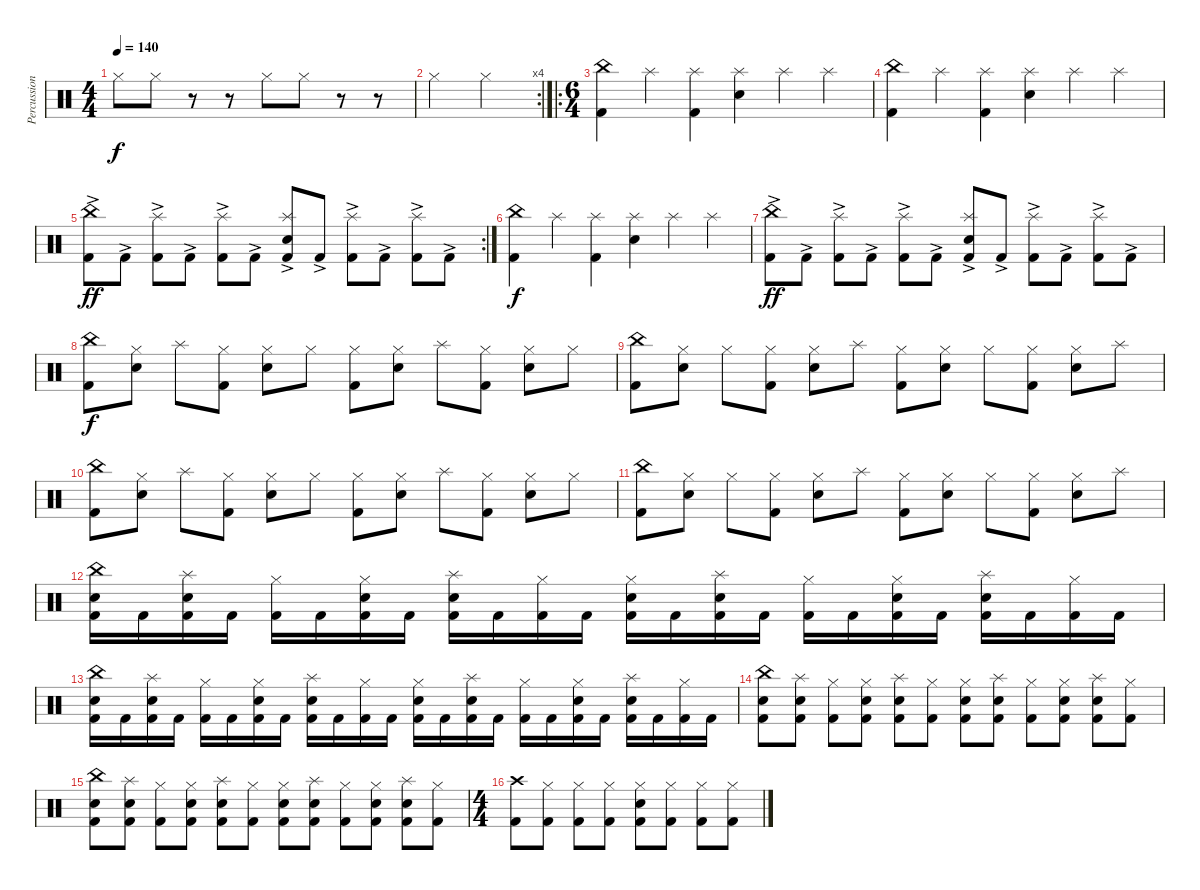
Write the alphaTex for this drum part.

\track ("Percussion" "Percussion") {instrument percussion}
\staff {score}
\articulation defaults
\ts (4 4)
\tempo 140
\clef neutral
\ks c "Hi-Hat (closed)".8{dy f} "Hi-Hat (closed)".8
r.8 r.8 "Hi-Hat (closed)".8 "Hi-Hat (closed)".8 r.8 r.8 |
\rc 4 "Hi-Hat (closed)".2 "Hi-Hat (closed)".2
|
\ro
\ts (6 4)
("China (hit)" "Kick (hit) 2").4 "Splash (hit)".4 ("Splash (hit)" "Kick (hit) 2").4 ("Splash (hit)" "Snare (hit) 2").4 "Splash (hit)".4 "Splash (hit)".4 |
("China (hit)" "Kick (hit) 2").4 "Splash (hit)".4 ("Splash (hit)" "Kick (hit) 2").4 ("Splash (hit)" "Snare (hit) 2").4 "Splash (hit)".4 "Splash (hit)".4 |
\rc 2
("China (hit)" "Kick (hit) 2"{ac}).8{dy ff} "Kick (hit) 2"{ac}.8 ("Splash (hit)" "Kick (hit) 2"{ac}).8 "Kick (hit) 2"{ac}.8 ("Splash (hit)" "Kick (hit) 2"{ac}).8 "Kick (hit) 2"{ac}.8 ("Splash (hit)" "Snare (hit) 2" "Kick (hit) 2"{ac}).8 "Kick (hit) 2"{ac}.8 ("Splash (hit)" "Kick (hit) 2"{ac}).8 "Kick (hit) 2"{ac}.8 ("Splash (hit)" "Kick (hit) 2"{ac}).8 "Kick (hit) 2"{ac}.8 |
("China (hit)" "Kick (hit) 2").4{dy f} "Splash (hit)".4 ("Splash (hit)" "Kick (hit) 2").4 ("Splash (hit)" "Snare (hit) 2").4 "Splash (hit)".4 "Splash (hit)".4 |
("China (hit)" "Kick (hit) 2"{ac}).8{dy ff} "Kick (hit) 2"{ac}.8 ("Splash (hit)" "Kick (hit) 2"{ac}).8 "Kick (hit) 2"{ac}.8 ("Splash (hit)" "Kick (hit) 2"{ac}).8 "Kick (hit) 2"{ac}.8 ("Splash (hit)" "Snare (hit) 2" "Kick (hit) 2"{ac}).8 "Kick (hit) 2"{ac}.8 ("Splash (hit)" "Kick (hit) 2"{ac}).8 "Kick (hit) 2"{ac}.8 ("Splash (hit)" "Kick (hit) 2"{ac}).8 "Kick (hit) 2"{ac}.8 |
("China (hit)" "Kick (hit) 2").8{dy f} ("Hi-Hat (closed)" "Snare (hit) 2").8 "Splash (hit)".8 ("Hi-Hat (closed)" "Kick (hit) 2").8 ("Hi-Hat (closed)" "Snare (hit) 2").8 "Hi-Hat (closed)".8 ("Hi-Hat (closed)" "Kick (hit) 2").8 ("Hi-Hat (closed)" "Snare (hit) 2").8 "Splash (hit)".8 ("Hi-Hat (closed)" "Kick (hit) 2").8 ("Hi-Hat (closed)" "Snare (hit) 2").8 "Hi-Hat (closed)".8 |
("China (hit)" "Kick (hit) 2").8 ("Hi-Hat (closed)" "Snare (hit) 2").8 "Hi-Hat (closed)".8 ("Hi-Hat (closed)" "Kick (hit) 2").8 ("Hi-Hat (closed)" "Snare (hit) 2").8 "Splash (hit)".8 ("Hi-Hat (closed)" "Kick (hit) 2").8 ("Hi-Hat (closed)" "Snare (hit) 2").8 "Hi-Hat (closed)".8 ("Hi-Hat (closed)" "Kick (hit) 2").8 ("Hi-Hat (closed)" "Snare (hit) 2").8 "Splash (hit)".8 |
("China (hit)" "Kick (hit) 2").8 ("Hi-Hat (closed)" "Snare (hit) 2").8 "Splash (hit)".8 ("Hi-Hat (closed)" "Kick (hit) 2").8 ("Hi-Hat (closed)" "Snare (hit) 2").8 "Hi-Hat (closed)".8 ("Hi-Hat (closed)" "Kick (hit) 2").8 ("Hi-Hat (closed)" "Snare (hit) 2").8 "Splash (hit)".8 ("Hi-Hat (closed)" "Kick (hit) 2").8 ("Hi-Hat (closed)" "Snare (hit) 2").8 "Hi-Hat (closed)".8 |
("China (hit)" "Kick (hit) 2").8 ("Hi-Hat (closed)" "Snare (hit) 2").8 "Hi-Hat (closed)".8 ("Hi-Hat (closed)" "Kick (hit) 2").8 ("Hi-Hat (closed)" "Snare (hit) 2").8 "Splash (hit)".8 ("Hi-Hat (closed)" "Kick (hit) 2").8 ("Hi-Hat (closed)" "Snare (hit) 2").8 "Hi-Hat (closed)".8 ("Hi-Hat (closed)" "Kick (hit) 2").8 ("Hi-Hat (closed)" "Snare (hit) 2").8 "Splash (hit)".8 |
("China (hit)" "Snare (hit) 2" "Kick (hit) 2").16 "Kick (hit) 2".16 ("Splash (hit)" "Snare (hit) 2" "Kick (hit) 2").16 "Kick (hit) 2".16 ("Hi-Hat (closed)" "Kick (hit) 2").16 "Kick (hit) 2".16 ("Hi-Hat (closed)" "Snare (hit) 2" "Kick (hit) 2").16 "Kick (hit) 2".16 ("Splash (hit)" "Snare (hit) 2" "Kick (hit) 2").16 "Kick (hit) 2".16 ("Hi-Hat (closed)" "Kick (hit) 2").16 "Kick (hit) 2".16 ("Hi-Hat (closed)" "Snare (hit) 2" "Kick (hit) 2").16 "Kick (hit) 2".16 ("Splash (hit)" "Snare (hit) 2" "Kick (hit) 2").16 "Kick (hit) 2".16 ("Hi-Hat (closed)" "Kick (hit) 2").16 "Kick (hit) 2".16 ("Hi-Hat (closed)" "Snare (hit) 2" "Kick (hit) 2").16 "Kick (hit) 2".16 ("Splash (hit)" "Snare (hit) 2" "Kick (hit) 2").16 "Kick (hit) 2".16 ("Hi-Hat (closed)" "Kick (hit) 2").16 "Kick (hit) 2".16 |
("China (hit)" "Snare (hit) 2" "Kick (hit) 2").16 "Kick (hit) 2".16 ("Splash (hit)" "Snare (hit) 2" "Kick (hit) 2").16 "Kick (hit) 2".16 ("Hi-Hat (closed)" "Kick (hit) 2").16 "Kick (hit) 2".16 ("Hi-Hat (closed)" "Snare (hit) 2" "Kick (hit) 2").16 "Kick (hit) 2".16 ("Splash (hit)" "Snare (hit) 2" "Kick (hit) 2").16 "Kick (hit) 2".16 ("Hi-Hat (closed)" "Kick (hit) 2").16 "Kick (hit) 2".16 ("Hi-Hat (closed)" "Snare (hit) 2" "Kick (hit) 2").16 "Kick (hit) 2".16 ("Splash (hit)" "Snare (hit) 2" "Kick (hit) 2").16 "Kick (hit) 2".16 ("Hi-Hat (closed)" "Kick (hit) 2").16 "Kick (hit) 2".16 ("Hi-Hat (closed)" "Snare (hit) 2" "Kick (hit) 2").16 "Kick (hit) 2".16 ("Splash (hit)" "Snare (hit) 2" "Kick (hit) 2").16 "Kick (hit) 2".16 ("Hi-Hat (closed)" "Kick (hit) 2").16 "Kick (hit) 2".16 |
("China (hit)" "Snare (hit) 2" "Kick (hit) 2").8 ("Splash (hit)" "Snare (hit) 2" "Kick (hit) 2").8 ("Hi-Hat (closed)" "Kick (hit) 2").8 ("Hi-Hat (closed)" "Snare (hit) 2" "Kick (hit) 2").8 ("Splash (hit)" "Snare (hit) 2" "Kick (hit) 2").8 ("Hi-Hat (closed)" "Kick (hit) 2").8 ("Hi-Hat (closed)" "Snare (hit) 2" "Kick (hit) 2").8 ("Splash (hit)" "Snare (hit) 2" "Kick (hit) 2").8 ("Hi-Hat (closed)" "Kick (hit) 2").8 ("Hi-Hat (closed)" "Snare (hit) 2" "Kick (hit) 2").8 ("Splash (hit)" "Snare (hit) 2" "Kick (hit) 2").8 ("Hi-Hat (closed)" "Kick (hit) 2").8 |
("China (hit)" "Snare (hit) 2" "Kick (hit) 2").8 ("Splash (hit)" "Snare (hit) 2" "Kick (hit) 2").8 ("Hi-Hat (closed)" "Kick (hit) 2").8 ("Hi-Hat (closed)" "Snare (hit) 2" "Kick (hit) 2").8 ("Splash (hit)" "Snare (hit) 2" "Kick (hit) 2").8 ("Hi-Hat (closed)" "Kick (hit) 2").8 ("Hi-Hat (closed)" "Snare (hit) 2" "Kick (hit) 2").8 ("Splash (hit)" "Snare (hit) 2" "Kick (hit) 2").8 ("Hi-Hat (closed)" "Kick (hit) 2").8 ("Hi-Hat (closed)" "Snare (hit) 2" "Kick (hit) 2").8 ("Splash (hit)" "Snare (hit) 2" "Kick (hit) 2").8 ("Hi-Hat (closed)" "Kick (hit) 2").8 |
\ts (4 4)
("Crash high (hit)" "Kick (hit) 2").8 ("Hi-Hat (closed)" "Kick (hit) 2").8 ("Hi-Hat (closed)" "Kick (hit) 2").8 ("Hi-Hat (closed)" "Kick (hit) 2").8 ("Hi-Hat (closed)" "Snare (hit) 2" "Kick (hit) 2").8 ("Hi-Hat (closed)" "Kick (hit) 2").8 ("Hi-Hat (closed)" "Kick (hit) 2").8 ("Hi-Hat (closed)" "Kick (hit) 2").8
